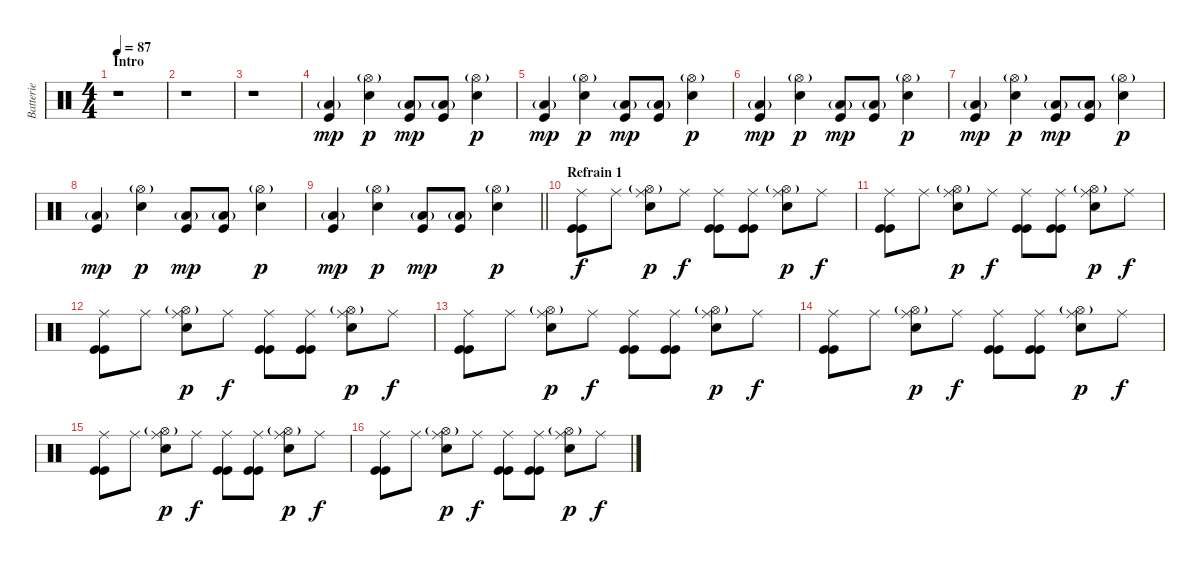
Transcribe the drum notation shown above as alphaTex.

\track ("Batterie" "Batterie") {instrument percussion}
\staff {score}
\articulation defaults
\ts (4 4)
\section ("" "Intro")
\tempo 87
\clef neutral
\ks c
r.1{dy mp} |
r.1 |
r.1 |
("Kick (hit)" "Low Floor Tom (hit)"{g}).4 ("Hi-Hat (open)"{g} "Electric Snare (hit)").4{dy p} ("Kick (hit)" "Low Floor Tom (hit)"{g}).8{dy mp} ("Kick (hit)" "Low Floor Tom (hit)"{g}).8 ("Hi-Hat (open)"{g} "Electric Snare (hit)").4{dy p} |
("Kick (hit)" "Low Floor Tom (hit)"{g}).4{dy mp} ("Hi-Hat (open)"{g} "Electric Snare (hit)").4{dy p} ("Kick (hit)" "Low Floor Tom (hit)"{g}).8{dy mp} ("Kick (hit)" "Low Floor Tom (hit)"{g}).8 ("Hi-Hat (open)"{g} "Electric Snare (hit)").4{dy p} |
("Kick (hit)" "Low Floor Tom (hit)"{g}).4{dy mp} ("Hi-Hat (open)"{g} "Electric Snare (hit)").4{dy p} ("Kick (hit)" "Low Floor Tom (hit)"{g}).8{dy mp} ("Kick (hit)" "Low Floor Tom (hit)"{g}).8 ("Hi-Hat (open)"{g} "Electric Snare (hit)").4{dy p} |
("Kick (hit)" "Low Floor Tom (hit)"{g}).4{dy mp} ("Hi-Hat (open)"{g} "Electric Snare (hit)").4{dy p} ("Kick (hit)" "Low Floor Tom (hit)"{g}).8{dy mp} ("Kick (hit)" "Low Floor Tom (hit)"{g}).8 ("Hi-Hat (open)"{g} "Electric Snare (hit)").4{dy p} |
("Kick (hit)" "Low Floor Tom (hit)"{g}).4{dy mp} ("Hi-Hat (open)"{g} "Electric Snare (hit)").4{dy p} ("Kick (hit)" "Low Floor Tom (hit)"{g}).8{dy mp} ("Kick (hit)" "Low Floor Tom (hit)"{g}).8 ("Hi-Hat (open)"{g} "Electric Snare (hit)").4{dy p} |
\barLineRight lightlight
("Kick (hit)" "Low Floor Tom (hit)"{g}).4{dy mp} ("Hi-Hat (open)"{g} "Electric Snare (hit)").4{dy p} ("Kick (hit)" "Low Floor Tom (hit)"{g}).8{dy mp} ("Kick (hit)" "Low Floor Tom (hit)"{g}).8 ("Hi-Hat (open)"{g} "Electric Snare (hit)").4{dy p} |
\section ("" "Refrain 1")
("Ride (middle)" "Kick (hit)" "Kick (hit)").8{dy f} "Ride (middle)".8 ("Hi-Hat (open)"{g} "Ride (middle)" "Electric Snare (hit)").8{dy p} "Ride (middle)".8{dy f} ("Ride (middle)" "Kick (hit)" "Kick (hit)").8 ("Ride (middle)" "Kick (hit)" "Kick (hit)").8 ("Hi-Hat (open)"{g} "Ride (middle)" "Electric Snare (hit)").8{dy p} "Ride (middle)".8{dy f} |
("Ride (middle)" "Kick (hit)" "Kick (hit)").8 "Ride (middle)".8 ("Hi-Hat (open)"{g} "Ride (middle)" "Electric Snare (hit)").8{dy p} "Ride (middle)".8{dy f} ("Ride (middle)" "Kick (hit)" "Kick (hit)").8 ("Ride (middle)" "Kick (hit)" "Kick (hit)").8 ("Hi-Hat (open)"{g} "Ride (middle)" "Electric Snare (hit)").8{dy p} "Ride (middle)".8{dy f} |
("Ride (middle)" "Kick (hit)" "Kick (hit)").8 "Ride (middle)".8 ("Hi-Hat (open)"{g} "Ride (middle)" "Electric Snare (hit)").8{dy p} "Ride (middle)".8{dy f} ("Ride (middle)" "Kick (hit)" "Kick (hit)").8 ("Ride (middle)" "Kick (hit)" "Kick (hit)").8 ("Hi-Hat (open)"{g} "Ride (middle)" "Electric Snare (hit)").8{dy p} "Ride (middle)".8{dy f} |
("Ride (middle)" "Kick (hit)" "Kick (hit)").8 "Ride (middle)".8 ("Hi-Hat (open)"{g} "Ride (middle)" "Electric Snare (hit)").8{dy p} "Ride (middle)".8{dy f} ("Ride (middle)" "Kick (hit)" "Kick (hit)").8 ("Ride (middle)" "Kick (hit)" "Kick (hit)").8 ("Hi-Hat (open)"{g} "Ride (middle)" "Electric Snare (hit)").8{dy p} "Ride (middle)".8{dy f} |
("Ride (middle)" "Kick (hit)" "Kick (hit)").8 "Ride (middle)".8 ("Hi-Hat (open)"{g} "Ride (middle)" "Electric Snare (hit)").8{dy p} "Ride (middle)".8{dy f} ("Ride (middle)" "Kick (hit)" "Kick (hit)").8 ("Ride (middle)" "Kick (hit)" "Kick (hit)").8 ("Hi-Hat (open)"{g} "Ride (middle)" "Electric Snare (hit)").8{dy p} "Ride (middle)".8{dy f} |
("Ride (middle)" "Kick (hit)" "Kick (hit)").8 "Ride (middle)".8 ("Hi-Hat (open)"{g} "Ride (middle)" "Electric Snare (hit)").8{dy p} "Ride (middle)".8{dy f} ("Ride (middle)" "Kick (hit)" "Kick (hit)").8 ("Ride (middle)" "Kick (hit)" "Kick (hit)").8 ("Hi-Hat (open)"{g} "Ride (middle)" "Electric Snare (hit)").8{dy p} "Ride (middle)".8{dy f} |
("Ride (middle)" "Kick (hit)" "Kick (hit)").8 "Ride (middle)".8 ("Hi-Hat (open)"{g} "Ride (middle)" "Electric Snare (hit)").8{dy p} "Ride (middle)".8{dy f} ("Ride (middle)" "Kick (hit)" "Kick (hit)").8 ("Ride (middle)" "Kick (hit)" "Kick (hit)").8 ("Hi-Hat (open)"{g} "Ride (middle)" "Electric Snare (hit)").8{dy p} "Ride (middle)".8{dy f}
